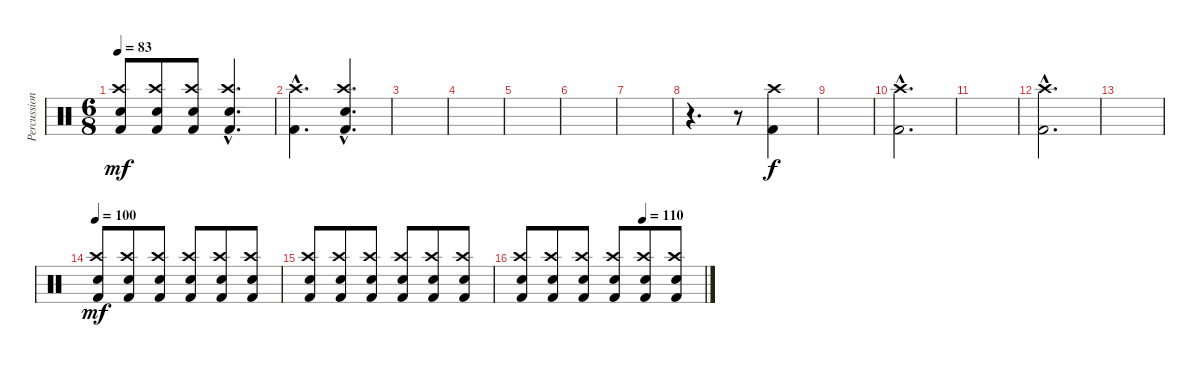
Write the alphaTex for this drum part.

\track ("Percussion" "Percussion") {instrument percussion}
\staff {score}
\articulation defaults
\ts (6 8)
\tempo 83
\clef neutral
\ks c
("Kick (hit) 2" "Crash high (hit)" "Snare (hit) 2").8{dy mf} ("Kick (hit) 2" "Crash high (hit)" "Snare (hit) 2").8 ("Kick (hit) 2" "Crash high (hit)" "Snare (hit) 2").8 ("Kick (hit) 2"{hac} "Crash high (hit)"{hac} "Snare (hit) 2"{hac}).4{d} |
("Kick (hit) 2"{hac} "Crash high (hit)"{hac}).4{d} ("Kick (hit) 2"{hac} "Snare (hit) 2"{hac} "Crash high (hit)"{hac}).4{d} |
|
|
|
|
|
r.4{d} r.8 ("Kick (hit) 2" "Crash high (hit)").4{dy f} |
|
("Kick (hit) 2"{hac} "Crash high (hit)"{hac}).2{d} |
|
("Kick (hit) 2"{hac} "Crash high (hit)"{hac}).2{d} |
|
\tempo 100
("Kick (hit) 2" "Crash high (hit)" "Snare (hit) 2").8{dy mf} ("Kick (hit) 2" "Crash high (hit)" "Snare (hit) 2").8 ("Kick (hit) 2" "Crash high (hit)" "Snare (hit) 2").8 ("Kick (hit) 2" "Crash high (hit)" "Snare (hit) 2").8 ("Kick (hit) 2" "Crash high (hit)" "Snare (hit) 2").8 ("Kick (hit) 2" "Crash high (hit)" "Snare (hit) 2").8 |
("Kick (hit) 2" "Crash high (hit)" "Snare (hit) 2").8 ("Kick (hit) 2" "Crash high (hit)" "Snare (hit) 2").8 ("Kick (hit) 2" "Crash high (hit)" "Snare (hit) 2").8 ("Kick (hit) 2" "Crash high (hit)" "Snare (hit) 2").8 ("Kick (hit) 2" "Crash high (hit)" "Snare (hit) 2").8 ("Kick (hit) 2" "Crash high (hit)" "Snare (hit) 2").8 |
\tempo (110 0.6666666666666666)
("Kick (hit) 2" "Crash high (hit)" "Snare (hit) 2").8 ("Kick (hit) 2" "Crash high (hit)" "Snare (hit) 2").8 ("Kick (hit) 2" "Crash high (hit)" "Snare (hit) 2").8 ("Kick (hit) 2" "Crash high (hit)" "Snare (hit) 2").8 ("Kick (hit) 2" "Crash high (hit)" "Snare (hit) 2").8 ("Kick (hit) 2" "Crash high (hit)" "Snare (hit) 2").8
